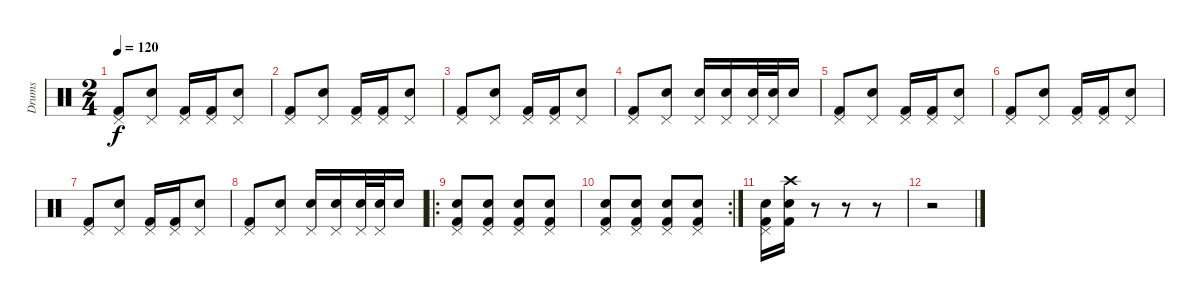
\track ("Drums" "Drums") {instrument percussion}
\staff {score}
\articulation defaults
\ts (2 4)
\tempo 120
\clef neutral
\ks c
("Kick (hit) 2" "Pedal Hi-Hat (hit)").8{dy f} ("Electric Snare (hit)" "Pedal Hi-Hat (hit)").8 ("Kick (hit) 2" "Pedal Hi-Hat (hit)").16 ("Kick (hit) 2" "Pedal Hi-Hat (hit)").16 ("Electric Snare (hit)" "Pedal Hi-Hat (hit)").8 |
("Kick (hit) 2" "Pedal Hi-Hat (hit)").8 ("Electric Snare (hit)" "Pedal Hi-Hat (hit)").8 ("Kick (hit) 2" "Pedal Hi-Hat (hit)").16 ("Kick (hit) 2" "Pedal Hi-Hat (hit)").16 ("Electric Snare (hit)" "Pedal Hi-Hat (hit)").8 |
("Kick (hit) 2" "Pedal Hi-Hat (hit)").8 ("Electric Snare (hit)" "Pedal Hi-Hat (hit)").8 ("Kick (hit) 2" "Pedal Hi-Hat (hit)").16 ("Kick (hit) 2" "Pedal Hi-Hat (hit)").16 ("Electric Snare (hit)" "Pedal Hi-Hat (hit)").8 |
("Kick (hit) 2" "Pedal Hi-Hat (hit)").8 ("Electric Snare (hit)" "Pedal Hi-Hat (hit)").8 ("Electric Snare (hit)" "Pedal Hi-Hat (hit)").16 ("Electric Snare (hit)" "Pedal Hi-Hat (hit)").16 ("Electric Snare (hit)" "Pedal Hi-Hat (hit)").32 ("Electric Snare (hit)" "Pedal Hi-Hat (hit)").32 "Electric Snare (hit)".16 |
("Kick (hit) 2" "Pedal Hi-Hat (hit)").8 ("Electric Snare (hit)" "Pedal Hi-Hat (hit)").8 ("Kick (hit) 2" "Pedal Hi-Hat (hit)").16 ("Kick (hit) 2" "Pedal Hi-Hat (hit)").16 ("Electric Snare (hit)" "Pedal Hi-Hat (hit)").8 |
("Kick (hit) 2" "Pedal Hi-Hat (hit)").8 ("Electric Snare (hit)" "Pedal Hi-Hat (hit)").8 ("Kick (hit) 2" "Pedal Hi-Hat (hit)").16 ("Kick (hit) 2" "Pedal Hi-Hat (hit)").16 ("Electric Snare (hit)" "Pedal Hi-Hat (hit)").8 |
("Kick (hit) 2" "Pedal Hi-Hat (hit)").8 ("Electric Snare (hit)" "Pedal Hi-Hat (hit)").8 ("Kick (hit) 2" "Pedal Hi-Hat (hit)").16 ("Kick (hit) 2" "Pedal Hi-Hat (hit)").16 ("Electric Snare (hit)" "Pedal Hi-Hat (hit)").8 |
("Kick (hit) 2" "Pedal Hi-Hat (hit)").8 ("Electric Snare (hit)" "Pedal Hi-Hat (hit)").8 ("Electric Snare (hit)" "Pedal Hi-Hat (hit)").16 ("Electric Snare (hit)" "Pedal Hi-Hat (hit)").16 ("Electric Snare (hit)" "Pedal Hi-Hat (hit)").32 ("Electric Snare (hit)" "Pedal Hi-Hat (hit)").32 "Electric Snare (hit)".16 |
\ro
("Electric Snare (hit)" "Kick (hit) 2" "Pedal Hi-Hat (hit)").8 ("Electric Snare (hit)" "Kick (hit) 2" "Pedal Hi-Hat (hit)").8 ("Electric Snare (hit)" "Kick (hit) 2" "Pedal Hi-Hat (hit)").8 ("Electric Snare (hit)" "Kick (hit) 2" "Pedal Hi-Hat (hit)").8 |
\rc 2
("Electric Snare (hit)" "Kick (hit) 2" "Pedal Hi-Hat (hit)").8 ("Electric Snare (hit)" "Kick (hit) 2" "Pedal Hi-Hat (hit)").8 ("Electric Snare (hit)" "Kick (hit) 2" "Pedal Hi-Hat (hit)").8 ("Electric Snare (hit)" "Kick (hit) 2" "Pedal Hi-Hat (hit)").8 |
("Electric Snare (hit)" "Kick (hit) 2" "Pedal Hi-Hat (hit)").16 ("Electric Snare (hit)" "Kick (hit) 2" "Crash high (hit)").16 r.8 r.8 r.8 |
r.2
